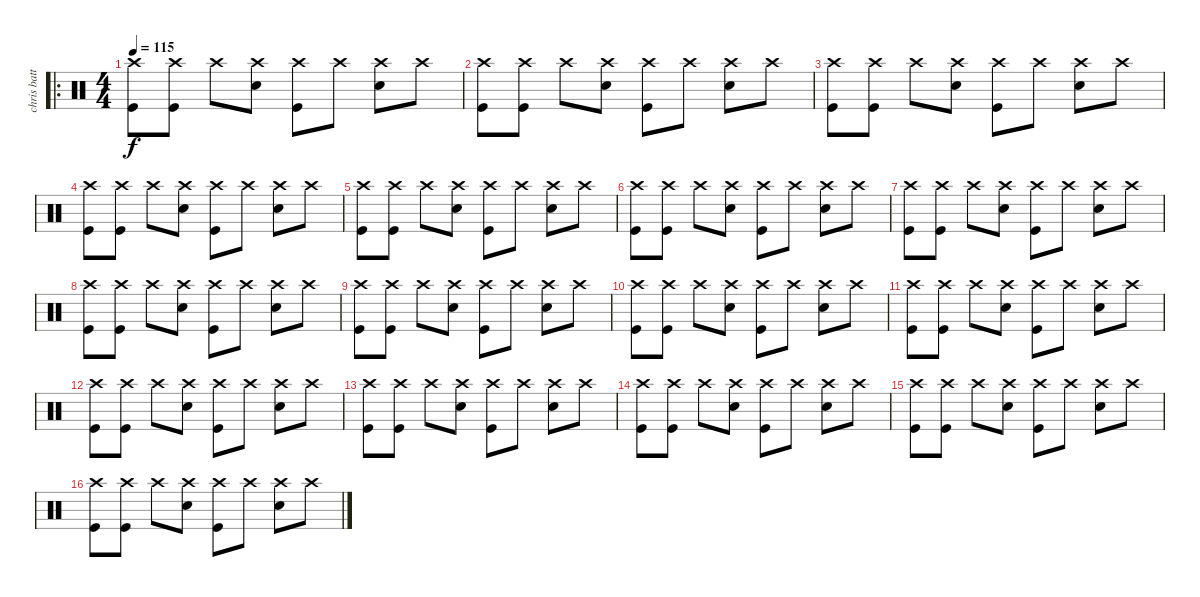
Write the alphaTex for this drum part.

\track ("chris batterie" "chris batt") {instrument percussion}
\staff {score}
\articulation defaults
\ro
\ts (4 4)
\tempo 115
\clef neutral
\ks c
("Crash high (hit)" "Kick (hit)").8{dy f} ("Crash high (hit)" "Kick (hit)").8 "Crash high (hit)".8 ("Crash high (hit)" "Snare (hit) 2").8 ("Crash high (hit)" "Kick (hit)").8 "Crash high (hit)".8 ("Crash high (hit)" "Snare (hit) 2").8 "Crash high (hit)".8 |
("Crash high (hit)" "Kick (hit)").8 ("Crash high (hit)" "Kick (hit)").8 "Crash high (hit)".8 ("Crash high (hit)" "Snare (hit) 2").8 ("Crash high (hit)" "Kick (hit)").8 "Crash high (hit)".8 ("Crash high (hit)" "Snare (hit) 2").8 "Crash high (hit)".8 |
("Crash high (hit)" "Kick (hit)").8 ("Crash high (hit)" "Kick (hit)").8 "Crash high (hit)".8 ("Crash high (hit)" "Snare (hit) 2").8 ("Crash high (hit)" "Kick (hit)").8 "Crash high (hit)".8 ("Crash high (hit)" "Snare (hit) 2").8 "Crash high (hit)".8 |
("Crash high (hit)" "Kick (hit)").8 ("Crash high (hit)" "Kick (hit)").8 "Crash high (hit)".8 ("Crash high (hit)" "Snare (hit) 2").8 ("Crash high (hit)" "Kick (hit)").8 "Crash high (hit)".8 ("Crash high (hit)" "Snare (hit) 2").8 "Crash high (hit)".8 |
("Crash high (hit)" "Kick (hit)").8 ("Crash high (hit)" "Kick (hit)").8 "Crash high (hit)".8 ("Crash high (hit)" "Snare (hit) 2").8 ("Crash high (hit)" "Kick (hit)").8 "Crash high (hit)".8 ("Crash high (hit)" "Snare (hit) 2").8 "Crash high (hit)".8 |
("Crash high (hit)" "Kick (hit)").8 ("Crash high (hit)" "Kick (hit)").8 "Crash high (hit)".8 ("Crash high (hit)" "Snare (hit) 2").8 ("Crash high (hit)" "Kick (hit)").8 "Crash high (hit)".8 ("Crash high (hit)" "Snare (hit) 2").8 "Crash high (hit)".8 |
("Crash high (hit)" "Kick (hit)").8 ("Crash high (hit)" "Kick (hit)").8 "Crash high (hit)".8 ("Crash high (hit)" "Snare (hit) 2").8 ("Crash high (hit)" "Kick (hit)").8 "Crash high (hit)".8 ("Crash high (hit)" "Snare (hit) 2").8 "Crash high (hit)".8 |
("Crash high (hit)" "Kick (hit)").8 ("Crash high (hit)" "Kick (hit)").8 "Crash high (hit)".8 ("Crash high (hit)" "Snare (hit) 2").8 ("Crash high (hit)" "Kick (hit)").8 "Crash high (hit)".8 ("Crash high (hit)" "Snare (hit) 2").8 "Crash high (hit)".8 |
("Crash high (hit)" "Kick (hit)").8 ("Crash high (hit)" "Kick (hit)").8 "Crash high (hit)".8 ("Crash high (hit)" "Snare (hit) 2").8 ("Crash high (hit)" "Kick (hit)").8 "Crash high (hit)".8 ("Crash high (hit)" "Snare (hit) 2").8 "Crash high (hit)".8 |
("Crash high (hit)" "Kick (hit)").8 ("Crash high (hit)" "Kick (hit)").8 "Crash high (hit)".8 ("Crash high (hit)" "Snare (hit) 2").8 ("Crash high (hit)" "Kick (hit)").8 "Crash high (hit)".8 ("Crash high (hit)" "Snare (hit) 2").8 "Crash high (hit)".8 |
("Crash high (hit)" "Kick (hit)").8 ("Crash high (hit)" "Kick (hit)").8 "Crash high (hit)".8 ("Crash high (hit)" "Snare (hit) 2").8 ("Crash high (hit)" "Kick (hit)").8 "Crash high (hit)".8 ("Crash high (hit)" "Snare (hit) 2").8 "Crash high (hit)".8 |
("Crash high (hit)" "Kick (hit)").8 ("Crash high (hit)" "Kick (hit)").8 "Crash high (hit)".8 ("Crash high (hit)" "Snare (hit) 2").8 ("Crash high (hit)" "Kick (hit)").8 "Crash high (hit)".8 ("Crash high (hit)" "Snare (hit) 2").8 "Crash high (hit)".8 |
("Crash high (hit)" "Kick (hit)").8 ("Crash high (hit)" "Kick (hit)").8 "Crash high (hit)".8 ("Crash high (hit)" "Snare (hit) 2").8 ("Crash high (hit)" "Kick (hit)").8 "Crash high (hit)".8 ("Crash high (hit)" "Snare (hit) 2").8 "Crash high (hit)".8 |
("Crash high (hit)" "Kick (hit)").8 ("Crash high (hit)" "Kick (hit)").8 "Crash high (hit)".8 ("Crash high (hit)" "Snare (hit) 2").8 ("Crash high (hit)" "Kick (hit)").8 "Crash high (hit)".8 ("Crash high (hit)" "Snare (hit) 2").8 "Crash high (hit)".8 |
("Crash high (hit)" "Kick (hit)").8 ("Crash high (hit)" "Kick (hit)").8 "Crash high (hit)".8 ("Crash high (hit)" "Snare (hit) 2").8 ("Crash high (hit)" "Kick (hit)").8 "Crash high (hit)".8 ("Crash high (hit)" "Snare (hit) 2").8 "Crash high (hit)".8 |
("Crash high (hit)" "Kick (hit)").8 ("Crash high (hit)" "Kick (hit)").8 "Crash high (hit)".8 ("Crash high (hit)" "Snare (hit) 2").8 ("Crash high (hit)" "Kick (hit)").8 "Crash high (hit)".8 ("Crash high (hit)" "Snare (hit) 2").8 "Crash high (hit)".8
